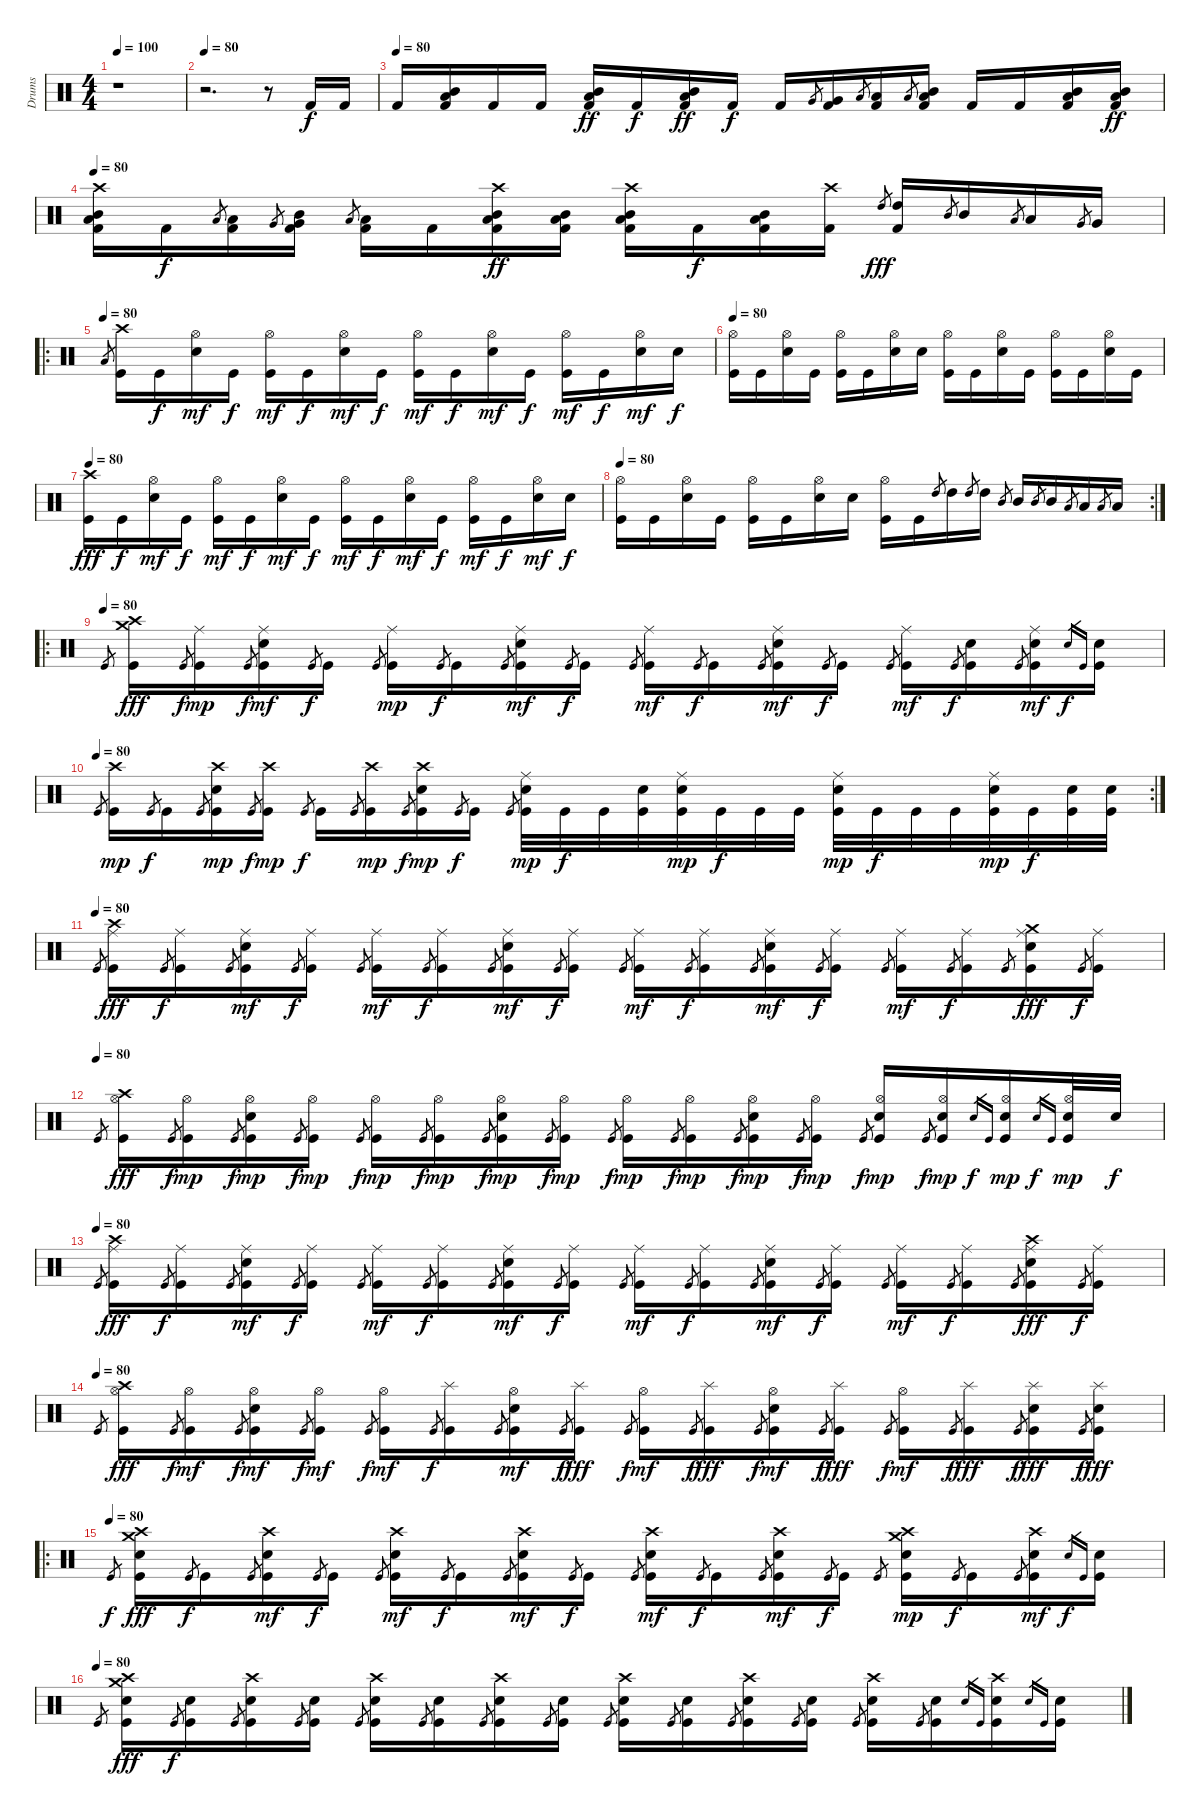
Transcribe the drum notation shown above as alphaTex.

\track ("Drums" "Drums") {instrument percussion}
\staff {score}
\articulation defaults
\ts (4 4)
\section ("" "")
\tempo 100
\tempo 80
\tempo 100
\clef neutral
\ks c
r.1{dy f} |
\tempo 80
r.2{d} r.8 "Kick (hit) 2".16 "Kick (hit) 2".16 |
\tempo (80)
"Kick (hit) 2".16 ("Mid Tom (hit)" "Low Tom (hit)" "Kick (hit) 2").16 "Kick (hit) 2".16 "Kick (hit) 2".16 ("Mid Tom (hit)" "Low Tom (hit)" "Kick (hit) 2").16{dy ff} "Kick (hit) 2".16{dy f} ("Mid Tom (hit)" "Low Tom (hit)" "Kick (hit) 2").16{dy ff} "Kick (hit) 2".16{dy f} "Kick (hit) 2".16 "Very Low Tom (hit)".8{gr} ("Very Low Tom (hit)" "Kick (hit) 2").16 "Low Floor Tom (hit)".8{gr} ("Low Floor Tom (hit)" "Kick (hit) 2").16 "Low Tom (hit)".8{gr} ("Mid Tom (hit)" "Low Tom (hit)" "Kick (hit) 2").16 "Kick (hit) 2".16 "Kick (hit) 2".16 ("Mid Tom (hit)" "Low Tom (hit)" "Kick (hit) 2").16 ("Mid Tom (hit)" "Low Tom (hit)" "Kick (hit) 2").16{dy ff} |
\tempo 80
("Crash high (hit)" "Mid Tom (hit)" "Low Tom (hit)" "Kick (hit) 2").16 "Kick (hit) 2".16{dy f} "Low Floor Tom (hit)".8{gr} ("Low Floor Tom (hit)" "Kick (hit) 2").16 "Very Low Tom (hit)".8{gr} ("Mid Tom (hit)" "Very Low Tom (hit)" "Kick (hit) 2").16 "Low Tom (hit)".8{gr} ("Low Tom (hit)" "Kick (hit) 2").16 "Kick (hit) 2".16 ("Crash high (hit)" "Mid Tom (hit)" "Low Tom (hit)" "Kick (hit) 2").16{dy ff} ("Mid Tom (hit)" "Low Tom (hit)" "Kick (hit) 2").16 ("Crash high (hit)" "Mid Tom (hit)" "Low Tom (hit)" "Kick (hit) 2").16 "Kick (hit) 2".16{dy f} ("Mid Tom (hit)" "Low Tom (hit)" "Kick (hit) 2").16 ("Crash high (hit)" "Kick (hit) 2").16 "High Tom (hit)".8{gr dy fff} ("High Tom (hit)" "Kick (hit) 2").16 "Mid Tom (hit)".8{gr} "Mid Tom (hit)".16 "Low Tom (hit)".8{gr} "Low Tom (hit)".16 "Very Low Tom (hit)".8{gr} "Very Low Tom (hit)".16 |
\ro
\tempo (80)
"Low Tom (hit)".8{gr} ("Crash high (hit)" "Kick (hit)").16{balance 8} "Kick (hit)".16{dy f} ("Hi-Hat (open)" "Electric Snare (hit)").16{dy mf} "Kick (hit)".16{dy f} ("Hi-Hat (open)" "Kick (hit)").16{dy mf} "Kick (hit)".16{dy f} ("Hi-Hat (open)" "Electric Snare (hit)").16{dy mf} "Kick (hit)".16{dy f} ("Hi-Hat (open)" "Kick (hit)").16{dy mf} "Kick (hit)".16{dy f} ("Hi-Hat (open)" "Electric Snare (hit)").16{dy mf} "Kick (hit)".16{dy f} ("Hi-Hat (open)" "Kick (hit)").16{dy mf} "Kick (hit)".16{dy f} ("Hi-Hat (open)" "Electric Snare (hit)").16{dy mf} "Electric Snare (hit)".16{dy f} |
\tempo 80
("Hi-Hat (open)" "Kick (hit)").16 "Kick (hit)".16 ("Hi-Hat (open)" "Electric Snare (hit)").16 "Kick (hit)".16 ("Hi-Hat (open)" "Kick (hit)").16 "Kick (hit)".16 ("Hi-Hat (open)" "Electric Snare (hit)").16 "Electric Snare (hit)".16 ("Hi-Hat (open)" "Kick (hit)").16 "Kick (hit)".16 ("Hi-Hat (open)" "Electric Snare (hit)").16 "Kick (hit)".16 ("Hi-Hat (open)" "Kick (hit)").16 "Kick (hit)".16 ("Hi-Hat (open)" "Electric Snare (hit)").16 "Kick (hit)".16 |
\tempo 80
("Crash high (hit)" "Kick (hit)").16{dy fff balance 8} "Kick (hit)".16{dy f} ("Hi-Hat (open)" "Electric Snare (hit)").16{dy mf} "Kick (hit)".16{dy f} ("Hi-Hat (open)" "Kick (hit)").16{dy mf} "Kick (hit)".16{dy f} ("Hi-Hat (open)" "Electric Snare (hit)").16{dy mf} "Kick (hit)".16{dy f} ("Hi-Hat (open)" "Kick (hit)").16{dy mf} "Kick (hit)".16{dy f} ("Hi-Hat (open)" "Electric Snare (hit)").16{dy mf} "Kick (hit)".16{dy f} ("Hi-Hat (open)" "Kick (hit)").16{dy mf} "Kick (hit)".16{dy f} ("Hi-Hat (open)" "Electric Snare (hit)").16{dy mf} "Electric Snare (hit)".16{dy f} |
\rc 2
\tempo 80
("Hi-Hat (open)" "Kick (hit)").16 "Kick (hit)".16 ("Hi-Hat (open)" "Electric Snare (hit)").16 "Kick (hit)".16 ("Hi-Hat (open)" "Kick (hit)").16 "Kick (hit)".16 ("Hi-Hat (open)" "Electric Snare (hit)").16 "Electric Snare (hit)".16 ("Hi-Hat (open)" "Kick (hit)").16 "Kick (hit)".16{balance 0} "High Tom (hit)".8{gr} "High Tom (hit)".16{balance 16} "High Tom (hit)".8{gr} "High Tom (hit)".16 "Mid Tom (hit)".8{gr} "Mid Tom (hit)".16 "Mid Tom (hit)".8{gr} "Mid Tom (hit)".16 "Low Tom (hit)".8{gr} "Low Tom (hit)".16 "Low Tom (hit)".8{gr} "Low Tom (hit)".16 |
\ro
\tempo (80)
"Kick (hit)".8{gr} ("Crash medium (hit)" "Crash high (hit)" "Kick (hit)").16{dy fff balance 8} "Kick (hit)".8{gr dy f} ("Ride (middle)" "Kick (hit)").16{dy mp} "Kick (hit)".8{gr dy f} ("Ride (middle)" "Electric Snare (hit)" "Kick (hit)").16{dy mf} "Kick (hit)".8{gr dy f} "Kick (hit)".16 "Kick (hit)".8{gr} ("Ride (middle)" "Kick (hit)").16{dy mp} "Kick (hit)".8{gr dy f} "Kick (hit)".16 "Kick (hit)".8{gr} ("Ride (middle)" "Electric Snare (hit)" "Kick (hit)").16{dy mf} "Kick (hit)".8{gr dy f} "Kick (hit)".16 "Kick (hit)".8{gr} ("Ride (middle)" "Kick (hit)").16{dy mf} "Kick (hit)".8{gr dy f} "Kick (hit)".16 "Kick (hit)".8{gr} ("Ride (middle)" "Electric Snare (hit)" "Kick (hit)").16{dy mf} "Kick (hit)".8{gr dy f} "Kick (hit)".16 "Kick (hit)".8{gr} ("Ride (middle)" "Kick (hit)").16{dy mf} "Kick (hit)".8{gr dy f} ("Electric Snare (hit)" "Kick (hit)").16 "Kick (hit)".8{gr} ("Ride (middle)" "Electric Snare (hit)" "Kick (hit)").16{dy mf} "Electric Snare (hit)".16{gr dy f} "Kick (hit)".16{gr} ("Electric Snare (hit)" "Kick (hit)").16 |
\rc 2
\tempo (80)
"Kick (hit)".8{gr} ("Crash high (hit)" "Kick (hit)").16{dy mp} "Kick (hit)".8{gr dy f} "Kick (hit)".16 "Kick (hit)".8{gr} ("Crash high (hit)" "Electric Snare (hit)" "Kick (hit)").16{dy mp} "Kick (hit)".8{gr dy f} ("Crash high (hit)" "Kick (hit)").16{dy mp} "Kick (hit)".8{gr dy f} "Kick (hit)".16 "Kick (hit)".8{gr} ("Crash high (hit)" "Kick (hit)").16{dy mp} "Kick (hit)".8{gr dy f} ("Crash high (hit)" "Electric Snare (hit)" "Kick (hit)").16{dy mp} "Kick (hit)".8{gr dy f} "Kick (hit)".16 "Kick (hit)".8{gr} ("Ride (middle)" "Electric Snare (hit)" "Kick (hit)").32{dy mp} "Kick (hit)".32{dy f} "Kick (hit)".32 ("Electric Snare (hit)" "Kick (hit)").32 ("Ride (middle)" "Electric Snare (hit)" "Kick (hit)").32{dy mp} "Kick (hit)".32{dy f} "Kick (hit)".32 "Kick (hit)".32 ("Ride (middle)" "Electric Snare (hit)" "Kick (hit)").32{dy mp} "Kick (hit)".32{dy f} "Kick (hit)".32 "Kick (hit)".32 ("Ride (middle)" "Electric Snare (hit)" "Kick (hit)").32{dy mp} "Kick (hit)".32{dy f} ("Electric Snare (hit)" "Kick (hit)").32 ("Electric Snare (hit)" "Kick (hit)").32 |
\tempo (80)
"Kick (hit)".8{gr} ("Ride (middle)" "Crash high (hit)" "Kick (hit)").16{dy fff balance 8} "Kick (hit)".8{gr dy f} ("Ride (middle)" "Kick (hit)").16 "Kick (hit)".8{gr} ("Ride (middle)" "Electric Snare (hit)" "Kick (hit)").16{dy mf} "Kick (hit)".8{gr dy f} ("Ride (middle)" "Kick (hit)").16 "Kick (hit)".8{gr} ("Ride (middle)" "Kick (hit)").16{dy mf} "Kick (hit)".8{gr dy f} ("Ride (middle)" "Kick (hit)").16 "Kick (hit)".8{gr} ("Ride (middle)" "Electric Snare (hit)" "Kick (hit)").16{dy mf} "Kick (hit)".8{gr dy f} ("Ride (middle)" "Kick (hit)").16 "Kick (hit)".8{gr} ("Ride (middle)" "Kick (hit)").16{dy mf} "Kick (hit)".8{gr dy f} ("Ride (middle)" "Kick (hit)").16 "Kick (hit)".8{gr} ("Ride (middle)" "Electric Snare (hit)" "Kick (hit)").16{dy mf} "Kick (hit)".8{gr dy f} ("Ride (middle)" "Kick (hit)").16 "Kick (hit)".8{gr} ("Ride (middle)" "Kick (hit)").16{dy mf} "Kick (hit)".8{gr dy f} ("Ride (middle)" "Kick (hit)").16 "Kick (hit)".8{gr} ("Ride (middle)" "Crash medium (hit)" "Electric Snare (hit)" "Kick (hit)").16{dy fff} "Kick (hit)".8{gr dy f} ("Ride (middle)" "Kick (hit)").16 |
\tempo (80)
"Kick (hit)".8{gr} ("Hi-Hat (open)" "Crash high (hit)" "Kick (hit)").16{dy fff balance 8} "Kick (hit)".8{gr dy f} ("Hi-Hat (open)" "Kick (hit)").16{dy mp} "Kick (hit)".8{gr dy f} ("Hi-Hat (open)" "Electric Snare (hit)" "Kick (hit)").16{dy mp} "Kick (hit)".8{gr dy f} ("Hi-Hat (open)" "Kick (hit)").16{dy mp} "Kick (hit)".8{gr dy f} ("Hi-Hat (open)" "Kick (hit)").16{dy mp} "Kick (hit)".8{gr dy f} ("Hi-Hat (open)" "Kick (hit)").16{dy mp} "Kick (hit)".8{gr dy f} ("Hi-Hat (open)" "Electric Snare (hit)" "Kick (hit)").16{dy mp} "Kick (hit)".8{gr dy f} ("Hi-Hat (open)" "Kick (hit)").16{dy mp} "Kick (hit)".8{gr dy f} ("Hi-Hat (open)" "Kick (hit)").16{dy mp} "Kick (hit)".8{gr dy f} ("Hi-Hat (open)" "Kick (hit)").16{dy mp} "Kick (hit)".8{gr dy f} ("Hi-Hat (open)" "Electric Snare (hit)" "Kick (hit)").16{dy mp} "Kick (hit)".8{gr dy f} ("Hi-Hat (open)" "Kick (hit)").16{dy mp} "Kick (hit)".8{gr dy f} ("Hi-Hat (open)" "Electric Snare (hit)" "Kick (hit)").16{dy mp} "Kick (hit)".8{gr dy f} ("Hi-Hat (open)" "Electric Snare (hit)" "Kick (hit)").16{dy mp} "Electric Snare (hit)".16{gr dy f} "Kick (hit)".16{gr} ("Hi-Hat (open)" "Electric Snare (hit)" "Kick (hit)").16{dy mp} "Electric Snare (hit)".16{gr dy f} "Kick (hit)".16{gr} ("Hi-Hat (open)" "Electric Snare (hit)" "Kick (hit)").32{dy mp} "Electric Snare (hit)".32{dy f} |
\tempo (80)
"Kick (hit)".8{gr} ("Ride (middle)" "Crash high (hit)" "Kick (hit)").16{dy fff balance 8} "Kick (hit)".8{gr dy f} ("Ride (middle)" "Kick (hit)").16 "Kick (hit)".8{gr} ("Ride (middle)" "Electric Snare (hit)" "Kick (hit)").16{dy mf} "Kick (hit)".8{gr dy f} ("Ride (middle)" "Kick (hit)").16 "Kick (hit)".8{gr} ("Ride (middle)" "Kick (hit)").16{dy mf} "Kick (hit)".8{gr dy f} ("Ride (middle)" "Kick (hit)").16 "Kick (hit)".8{gr} ("Ride (middle)" "Electric Snare (hit)" "Kick (hit)").16{dy mf} "Kick (hit)".8{gr dy f} ("Ride (middle)" "Kick (hit)").16 "Kick (hit)".8{gr} ("Ride (middle)" "Kick (hit)").16{dy mf} "Kick (hit)".8{gr dy f} ("Ride (middle)" "Kick (hit)").16 "Kick (hit)".8{gr} ("Ride (middle)" "Electric Snare (hit)" "Kick (hit)").16{dy mf} "Kick (hit)".8{gr dy f} ("Ride (middle)" "Kick (hit)").16 "Kick (hit)".8{gr} ("Ride (middle)" "Kick (hit)").16{dy mf} "Kick (hit)".8{gr dy f} ("Ride (middle)" "Kick (hit)").16 "Kick (hit)".8{gr} ("Ride (middle)" "Crash high (hit)" "Electric Snare (hit)" "Kick (hit)").16{dy fff} "Kick (hit)".8{gr dy f} ("Ride (middle)" "Kick (hit)").16 |
\tempo (80)
"Kick (hit)".8{gr} ("Hi-Hat (open)" "Crash high (hit)" "Kick (hit)").16{dy fff} "Kick (hit)".8{gr dy f} ("Hi-Hat (open)" "Kick (hit)").16{dy mf} "Kick (hit)".8{gr dy f} ("Hi-Hat (open)" "Electric Snare (hit)" "Kick (hit)").16{dy mf} "Kick (hit)".8{gr dy f} ("Hi-Hat (open)" "Kick (hit)").16{dy mf} "Kick (hit)".8{gr dy f} ("Hi-Hat (open)" "Kick (hit)").16{dy mf} "Kick (hit)".8{gr dy f} ("Splash (hit)" "Kick (hit)").16 "Kick (hit)".8{gr} ("Hi-Hat (open)" "Electric Snare (hit)" "Kick (hit)").16{dy mf} "Kick (hit)".8{gr dy f} ("Splash (hit)" "Kick (hit)").16{dy fff} "Kick (hit)".8{gr dy f} ("Hi-Hat (open)" "Kick (hit)").16{dy mf} "Kick (hit)".8{gr dy f} ("Splash (hit)" "Kick (hit)").16{dy fff} "Kick (hit)".8{gr dy f} ("Hi-Hat (open)" "Electric Snare (hit)" "Kick (hit)").16{dy mf} "Kick (hit)".8{gr dy f} ("Splash (hit)" "Kick (hit)").16{dy fff} "Kick (hit)".8{gr dy f} ("Hi-Hat (open)" "Kick (hit)").16{dy mf} "Kick (hit)".8{gr dy f} ("Splash (hit)" "Kick (hit)").16{dy fff} "Kick (hit)".8{gr dy f} ("Splash (hit)" "Electric Snare (hit)" "Kick (hit)").16{dy fff} "Kick (hit)".8{gr dy f} ("Splash (hit)" "Electric Snare (hit)" "Kick (hit)").16{dy fff} |
\ro
\tempo (80)
"Kick (hit)".8{gr dy f} ("Crash high (hit)" "Crash medium (hit)" "Electric Snare (hit)" "Kick (hit)").16{dy fff balance 8} "Kick (hit)".8{gr dy f} "Kick (hit)".16 "Kick (hit)".8{gr} ("Crash high (hit)" "Electric Snare (hit)" "Kick (hit)").16{dy mf} "Kick (hit)".8{gr dy f} "Kick (hit)".16 "Kick (hit)".8{gr} ("Crash high (hit)" "Electric Snare (hit)" "Kick (hit)").16{dy mf} "Kick (hit)".8{gr dy f} "Kick (hit)".16 "Kick (hit)".8{gr} ("Crash high (hit)" "Electric Snare (hit)" "Kick (hit)").16{dy mf} "Kick (hit)".8{gr dy f} "Kick (hit)".16 "Kick (hit)".8{gr} ("Crash high (hit)" "Electric Snare (hit)" "Kick (hit)").16{dy mf} "Kick (hit)".8{gr dy f} "Kick (hit)".16 "Kick (hit)".8{gr} ("Crash high (hit)" "Electric Snare (hit)" "Kick (hit)").16{dy mf} "Kick (hit)".8{gr dy f} "Kick (hit)".16 "Kick (hit)".8{gr} ("Crash high (hit)" "Crash medium (hit)" "Electric Snare (hit)" "Kick (hit)").16{dy mp} "Kick (hit)".8{gr dy f} "Kick (hit)".16 "Kick (hit)".8{gr} ("Crash high (hit)" "Electric Snare (hit)" "Kick (hit)").16{dy mf} "Electric Snare (hit)".16{gr dy f} "Kick (hit)".16{gr} ("Electric Snare (hit)" "Kick (hit)").16 |
\tempo (80)
"Kick (hit)".8{gr} ("Crash high (hit)" "Crash medium (hit)" "Electric Snare (hit)" "Kick (hit)").16{dy fff} "Kick (hit)".8{gr dy f} ("Electric Snare (hit)" "Kick (hit)").16 "Kick (hit)".8{gr} ("Crash high (hit)" "Electric Snare (hit)" "Kick (hit)").16 "Kick (hit)".8{gr} ("Electric Snare (hit)" "Kick (hit)").16 "Kick (hit)".8{gr} ("Crash high (hit)" "Electric Snare (hit)" "Kick (hit)").16 "Kick (hit)".8{gr} ("Electric Snare (hit)" "Kick (hit)").16 "Kick (hit)".8{gr} ("Crash high (hit)" "Electric Snare (hit)" "Kick (hit)").16 "Kick (hit)".8{gr} ("Electric Snare (hit)" "Kick (hit)").16 "Kick (hit)".8{gr} ("Crash high (hit)" "Electric Snare (hit)" "Kick (hit)").16 "Kick (hit)".8{gr} ("Electric Snare (hit)" "Kick (hit)").16 "Kick (hit)".8{gr} ("Crash high (hit)" "Electric Snare (hit)" "Kick (hit)").16 "Kick (hit)".8{gr} ("Electric Snare (hit)" "Kick (hit)").16 "Kick (hit)".8{gr} ("Crash high (hit)" "Electric Snare (hit)" "Kick (hit)").16 "Kick (hit)".8{gr} ("Electric Snare (hit)" "Kick (hit)").16 "Electric Snare (hit)".16{gr} "Kick (hit)".16{gr} ("Crash high (hit)" "Electric Snare (hit)" "Kick (hit)").16 "Electric Snare (hit)".16{gr} "Kick (hit)".16{gr} ("Electric Snare (hit)" "Kick (hit)").16
